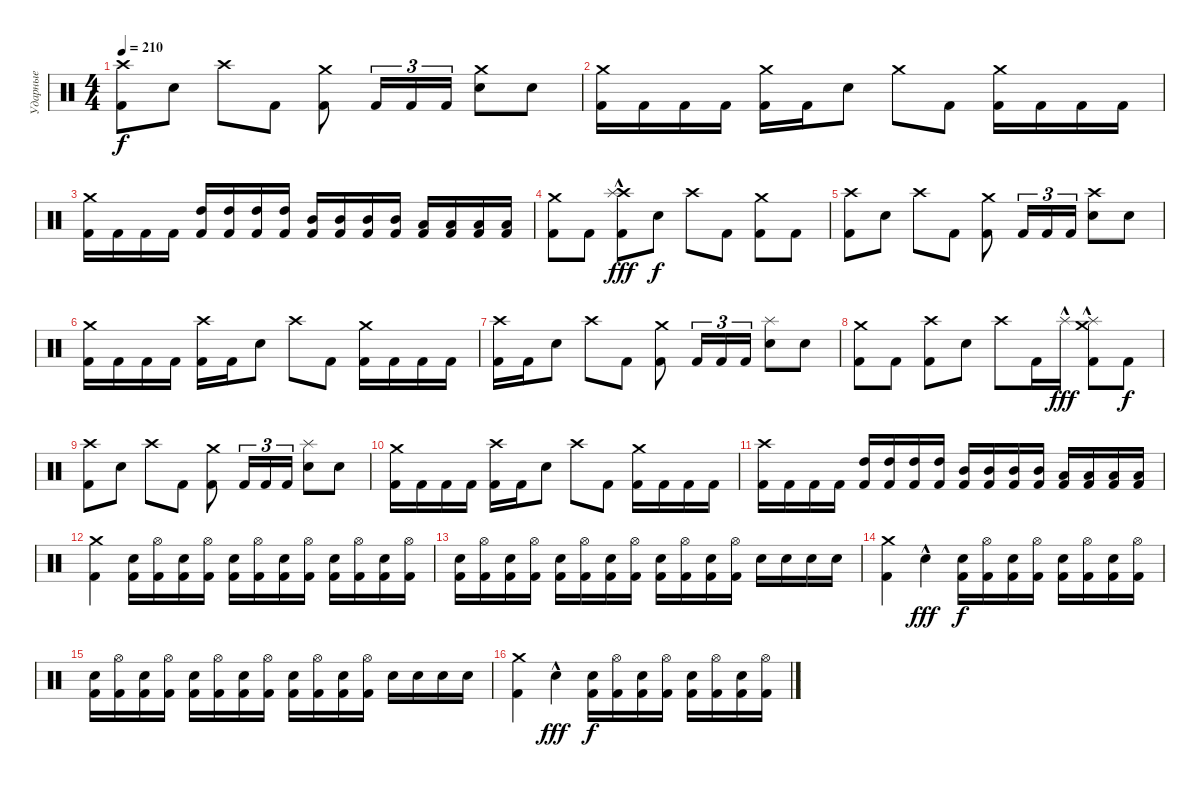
\track ("Ударные" "Ударные") {instrument percussion}
\staff {score}
\articulation defaults
\ts (4 4)
\tempo 210
\clef neutral
\ks c
("Crash high (hit)" "Kick (hit) 2").8{dy f} "Electric Snare (hit)".8 "Crash high (hit)".8 "Kick (hit) 2".8 ("Crash medium (hit)" "Kick (hit) 2").8 "Kick (hit) 2".16{tu (3 2)} "Kick (hit) 2".16{tu (3 2)} "Kick (hit) 2".16{tu (3 2)} ("Crash medium (hit)" "Electric Snare (hit)").8 "Electric Snare (hit)".8 |
("Crash medium (hit)" "Kick (hit) 2").16 "Kick (hit) 2".16 "Kick (hit) 2".16 "Kick (hit) 2".16 ("Crash medium (hit)" "Kick (hit) 2").16 "Kick (hit) 2".16 "Electric Snare (hit)".8 "Crash medium (hit)".8 "Kick (hit) 2".8 ("Crash medium (hit)" "Kick (hit) 2").16 "Kick (hit) 2".16 "Kick (hit) 2".16 "Kick (hit) 2".16 |
("Crash medium (hit)" "Kick (hit) 2").16 "Kick (hit) 2".16 "Kick (hit) 2".16 "Kick (hit) 2".16 ("High Tom (hit)" "Kick (hit) 2").16 ("High Tom (hit)" "Kick (hit) 2").16 ("High Tom (hit)" "Kick (hit) 2").16 ("High Tom (hit)" "Kick (hit) 2").16 ("Mid Tom (hit)" "Kick (hit) 2").16 ("Mid Tom (hit)" "Kick (hit) 2").16 ("Mid Tom (hit)" "Kick (hit) 2").16 ("Mid Tom (hit)" "Kick (hit) 2").16 ("Low Tom (hit)" "Kick (hit) 2").16 ("Low Tom (hit)" "Kick (hit) 2").16 ("Low Tom (hit)" "Kick (hit) 2").16 ("Low Tom (hit)" "Kick (hit) 2").16 |
("Crash medium (hit)" "Kick (hit) 2").8 "Kick (hit) 2".8 ("Crash high (hit)" "Splash (hit)"{hac} "Kick (hit) 2").8{dy fff} "Electric Snare (hit)".8{dy f} "Crash high (hit)".8 "Kick (hit) 2".8 ("Crash medium (hit)" "Kick (hit) 2").8 "Kick (hit) 2".8 |
("Crash high (hit)" "Kick (hit) 2").8 "Electric Snare (hit)".8 "Crash high (hit)".8 "Kick (hit) 2".8 ("Crash medium (hit)" "Kick (hit) 2").8 "Kick (hit) 2".16{tu (3 2)} "Kick (hit) 2".16{tu (3 2)} "Kick (hit) 2".16{tu (3 2)} ("Crash high (hit)" "Electric Snare (hit)").8 "Electric Snare (hit)".8 |
("Crash medium (hit)" "Kick (hit) 2").16 "Kick (hit) 2".16 "Kick (hit) 2".16 "Kick (hit) 2".16 ("Crash high (hit)" "Kick (hit) 2").16 "Kick (hit) 2".16 "Electric Snare (hit)".8 "Crash high (hit)".8 "Kick (hit) 2".8 ("Crash medium (hit)" "Kick (hit) 2").16 "Kick (hit) 2".16 "Kick (hit) 2".16 "Kick (hit) 2".16 |
("Crash high (hit)" "Kick (hit) 2").16 "Kick (hit) 2".16 "Electric Snare (hit)".8 "Crash high (hit)".8 "Kick (hit) 2".8 ("Crash medium (hit)" "Kick (hit) 2").8 "Kick (hit) 2".16{tu (3 2)} "Kick (hit) 2".16{tu (3 2)} "Kick (hit) 2".16{tu (3 2)} ("Splash (hit)" "Electric Snare (hit)").8 "Electric Snare (hit)".8 |
("Crash medium (hit)" "Kick (hit) 2").8 "Kick (hit) 2".8 ("Crash high (hit)" "Kick (hit) 2").8 "Electric Snare (hit)".8 "Crash high (hit)".8 "Kick (hit) 2".16 "Splash (hit)"{hac}.16{dy fff} ("Crash medium (hit)" "Splash (hit)"{hac} "Kick (hit) 2").8 "Kick (hit) 2".8{dy f} |
("Crash high (hit)" "Kick (hit) 2").8 "Electric Snare (hit)".8 "Crash high (hit)".8 "Kick (hit) 2".8 ("Crash medium (hit)" "Kick (hit) 2").8 "Kick (hit) 2".16{tu (3 2)} "Kick (hit) 2".16{tu (3 2)} "Kick (hit) 2".16{tu (3 2)} ("Splash (hit)" "Electric Snare (hit)").8 "Electric Snare (hit)".8 |
("Crash medium (hit)" "Kick (hit) 2").16 "Kick (hit) 2".16 "Kick (hit) 2".16 "Kick (hit) 2".16 ("Crash high (hit)" "Kick (hit) 2").16 "Kick (hit) 2".16 "Electric Snare (hit)".8 "Crash high (hit)".8 "Kick (hit) 2".8 ("Crash medium (hit)" "Kick (hit) 2").16 "Kick (hit) 2".16 "Kick (hit) 2".16 "Kick (hit) 2".16 |
("Crash high (hit)" "Kick (hit) 2").16 "Kick (hit) 2".16 "Kick (hit) 2".16 "Kick (hit) 2".16 ("High Tom (hit)" "Kick (hit) 2").16 ("High Tom (hit)" "Kick (hit) 2").16 ("High Tom (hit)" "Kick (hit) 2").16 ("High Tom (hit)" "Kick (hit) 2").16 ("Mid Tom (hit)" "Kick (hit) 2").16 ("Mid Tom (hit)" "Kick (hit) 2").16 ("Mid Tom (hit)" "Kick (hit) 2").16 ("Mid Tom (hit)" "Kick (hit) 2").16 ("Low Tom (hit)" "Kick (hit) 2").16 ("Low Tom (hit)" "Kick (hit) 2").16 ("Low Tom (hit)" "Kick (hit) 2").16 ("Low Tom (hit)" "Kick (hit) 2").16 |
("Crash medium (hit)" "Kick (hit) 2").4 ("Electric Snare (hit)" "Kick (hit) 2").16 ("Hi-Hat (open)" "Kick (hit) 2").16 ("Electric Snare (hit)" "Kick (hit) 2").16 ("Hi-Hat (open)" "Kick (hit) 2").16 ("Electric Snare (hit)" "Kick (hit) 2").16 ("Hi-Hat (open)" "Kick (hit) 2").16 ("Electric Snare (hit)" "Kick (hit) 2").16 ("Hi-Hat (open)" "Kick (hit) 2").16 ("Electric Snare (hit)" "Kick (hit) 2").16 ("Hi-Hat (open)" "Kick (hit) 2").16 ("Electric Snare (hit)" "Kick (hit) 2").16 ("Hi-Hat (open)" "Kick (hit) 2").16 |
("Electric Snare (hit)" "Kick (hit) 2").16 ("Hi-Hat (open)" "Kick (hit) 2").16 ("Electric Snare (hit)" "Kick (hit) 2").16 ("Hi-Hat (open)" "Kick (hit) 2").16 ("Electric Snare (hit)" "Kick (hit) 2").16 ("Hi-Hat (open)" "Kick (hit) 2").16 ("Electric Snare (hit)" "Kick (hit) 2").16 ("Hi-Hat (open)" "Kick (hit) 2").16 ("Electric Snare (hit)" "Kick (hit) 2").16 ("Hi-Hat (open)" "Kick (hit) 2").16 ("Electric Snare (hit)" "Kick (hit) 2").16 ("Hi-Hat (open)" "Kick (hit) 2").16 "Electric Snare (hit)".16 "Electric Snare (hit)".16 "Electric Snare (hit)".16 "Electric Snare (hit)".16 |
("Crash medium (hit)" "Kick (hit) 2").4 "Electric Snare (hit)"{hac}.4{dy fff} ("Electric Snare (hit)" "Kick (hit) 2").16{dy f} ("Hi-Hat (open)" "Kick (hit) 2").16 ("Electric Snare (hit)" "Kick (hit) 2").16 ("Hi-Hat (open)" "Kick (hit) 2").16 ("Electric Snare (hit)" "Kick (hit) 2").16 ("Hi-Hat (open)" "Kick (hit) 2").16 ("Electric Snare (hit)" "Kick (hit) 2").16 ("Hi-Hat (open)" "Kick (hit) 2").16 |
("Electric Snare (hit)" "Kick (hit) 2").16 ("Hi-Hat (open)" "Kick (hit) 2").16 ("Electric Snare (hit)" "Kick (hit) 2").16 ("Hi-Hat (open)" "Kick (hit) 2").16 ("Electric Snare (hit)" "Kick (hit) 2").16 ("Hi-Hat (open)" "Kick (hit) 2").16 ("Electric Snare (hit)" "Kick (hit) 2").16 ("Hi-Hat (open)" "Kick (hit) 2").16 ("Electric Snare (hit)" "Kick (hit) 2").16 ("Hi-Hat (open)" "Kick (hit) 2").16 ("Electric Snare (hit)" "Kick (hit) 2").16 ("Hi-Hat (open)" "Kick (hit) 2").16 "Electric Snare (hit)".16 "Electric Snare (hit)".16 "Electric Snare (hit)".16 "Electric Snare (hit)".16 |
("Crash medium (hit)" "Kick (hit) 2").4 "Electric Snare (hit)"{hac}.4{dy fff} ("Electric Snare (hit)" "Kick (hit) 2").16{dy f} ("Hi-Hat (open)" "Kick (hit) 2").16 ("Electric Snare (hit)" "Kick (hit) 2").16 ("Hi-Hat (open)" "Kick (hit) 2").16 ("Electric Snare (hit)" "Kick (hit) 2").16 ("Hi-Hat (open)" "Kick (hit) 2").16 ("Electric Snare (hit)" "Kick (hit) 2").16 ("Hi-Hat (open)" "Kick (hit) 2").16
